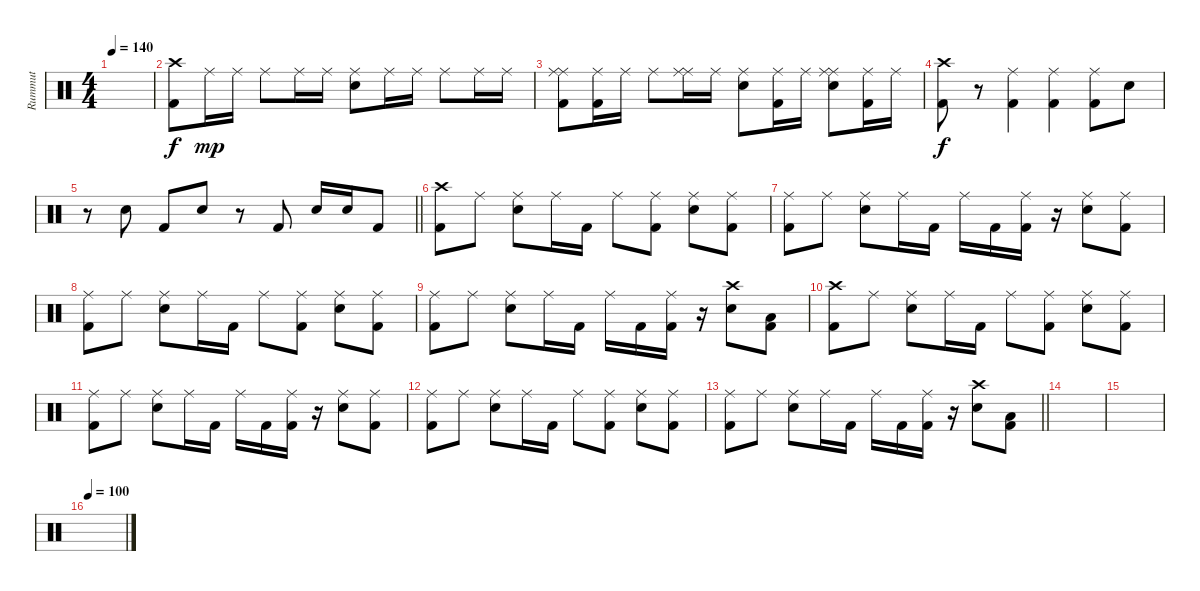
\track ("Rummut" "Rummut") {instrument percussion}
\staff {score}
\articulation defaults
\ts (4 4)
\tempo 140
\clef neutral
\ks c
|
("Crash high (hit)" "Kick (hit) 2").8 "Ride (middle)".16{dy mp} "Ride (middle)".16 "Ride (middle)".8 "Ride (middle)".16 "Ride (middle)".16 ("Ride (middle)" "Snare (hit) 2").8 "Ride (middle)".16 "Ride (middle)".16 "Ride (middle)".8 "Ride (middle)".16 "Ride (middle)".16 |
("Ride (middle)" "Ride (middle)" "Kick (hit) 2").8 ("Ride (middle)" "Kick (hit) 2").16 "Ride (middle)".16 "Ride (middle)".8 ("Ride (middle)" "Ride (middle)").16 "Ride (middle)".16 ("Ride (middle)" "Snare (hit) 2").8 ("Ride (middle)" "Kick (hit) 2").16 "Ride (middle)".16 ("Ride (middle)" "Ride (middle)" "Snare (hit) 2").8 ("Ride (middle)" "Kick (hit) 2").16 "Ride (middle)".16 |
("Crash high (hit)" "Kick (hit) 2").8{dy f} r.8 ("Ride (middle)" "Kick (hit) 2").4 ("Ride (middle)" "Kick (hit) 2").4 ("Ride (middle)" "Kick (hit) 2").8 "Snare (hit) 2".8 |
\barLineRight lightlight
r.8 "Snare (hit) 2".8 "Kick (hit) 2".8 "Snare (hit) 2".8 r.8 "Kick (hit) 2".8 "Snare (hit) 2".16 "Snare (hit) 2".16 "Kick (hit) 2".8 |
("Crash high (hit)" "Kick (hit) 2").8 "Ride (middle)".8 ("Ride (middle)" "Snare (hit) 2").8 "Ride (middle)".16 "Kick (hit) 2".16 "Ride (middle)".8 ("Ride (middle)" "Kick (hit) 2").8 ("Ride (middle)" "Snare (hit) 2").8 ("Ride (middle)" "Kick (hit) 2").8 |
("Ride (middle)" "Kick (hit) 2").8 "Ride (middle)".8 ("Ride (middle)" "Snare (hit) 2").8 "Ride (middle)".16 "Kick (hit) 2".16 "Ride (middle)".16 "Kick (hit) 2".16 ("Ride (middle)" "Kick (hit) 2").16 r.16 ("Ride (middle)" "Snare (hit) 2").8 ("Ride (middle)" "Kick (hit) 2").8 |
("Ride (middle)" "Kick (hit) 2").8 "Ride (middle)".8 ("Ride (middle)" "Snare (hit) 2").8 "Ride (middle)".16 "Kick (hit) 2".16 "Ride (middle)".8 ("Ride (middle)" "Kick (hit) 2").8 ("Ride (middle)" "Snare (hit) 2").8 ("Ride (middle)" "Kick (hit) 2").8 |
("Ride (middle)" "Kick (hit) 2").8 "Ride (middle)".8 ("Ride (middle)" "Snare (hit) 2").8 "Ride (middle)".16 "Kick (hit) 2".16 "Ride (middle)".16 "Kick (hit) 2".16 ("Ride (middle)" "Kick (hit) 2").16 r.16 ("Crash high (hit)" "Snare (hit) 2").8 ("Low Floor Tom (hit)" "Kick (hit) 2").8 |
("Crash high (hit)" "Kick (hit) 2").8 "Ride (middle)".8 ("Ride (middle)" "Snare (hit) 2").8 "Ride (middle)".16 "Kick (hit) 2".16 "Ride (middle)".8 ("Ride (middle)" "Kick (hit) 2").8 ("Ride (middle)" "Snare (hit) 2").8 ("Ride (middle)" "Kick (hit) 2").8 |
("Ride (middle)" "Kick (hit) 2").8 "Ride (middle)".8 ("Ride (middle)" "Snare (hit) 2").8 "Ride (middle)".16 "Kick (hit) 2".16 "Ride (middle)".16 "Kick (hit) 2".16 ("Ride (middle)" "Kick (hit) 2").16 r.16 ("Ride (middle)" "Snare (hit) 2").8 ("Ride (middle)" "Kick (hit) 2").8 |
("Ride (middle)" "Kick (hit) 2").8 "Ride (middle)".8 ("Ride (middle)" "Snare (hit) 2").8 "Ride (middle)".16 "Kick (hit) 2".16 "Ride (middle)".8 ("Ride (middle)" "Kick (hit) 2").8 ("Ride (middle)" "Snare (hit) 2").8 ("Ride (middle)" "Kick (hit) 2").8 |
\barLineRight lightlight
("Ride (middle)" "Kick (hit) 2").8 "Ride (middle)".8 ("Ride (middle)" "Snare (hit) 2").8 "Ride (middle)".16 "Kick (hit) 2".16 "Ride (middle)".16 "Kick (hit) 2".16 ("Ride (middle)" "Kick (hit) 2").16 r.16 ("Crash high (hit)" "Snare (hit) 2").8 ("Low Floor Tom (hit)" "Kick (hit) 2").8 |
|
|
\tempo 100
